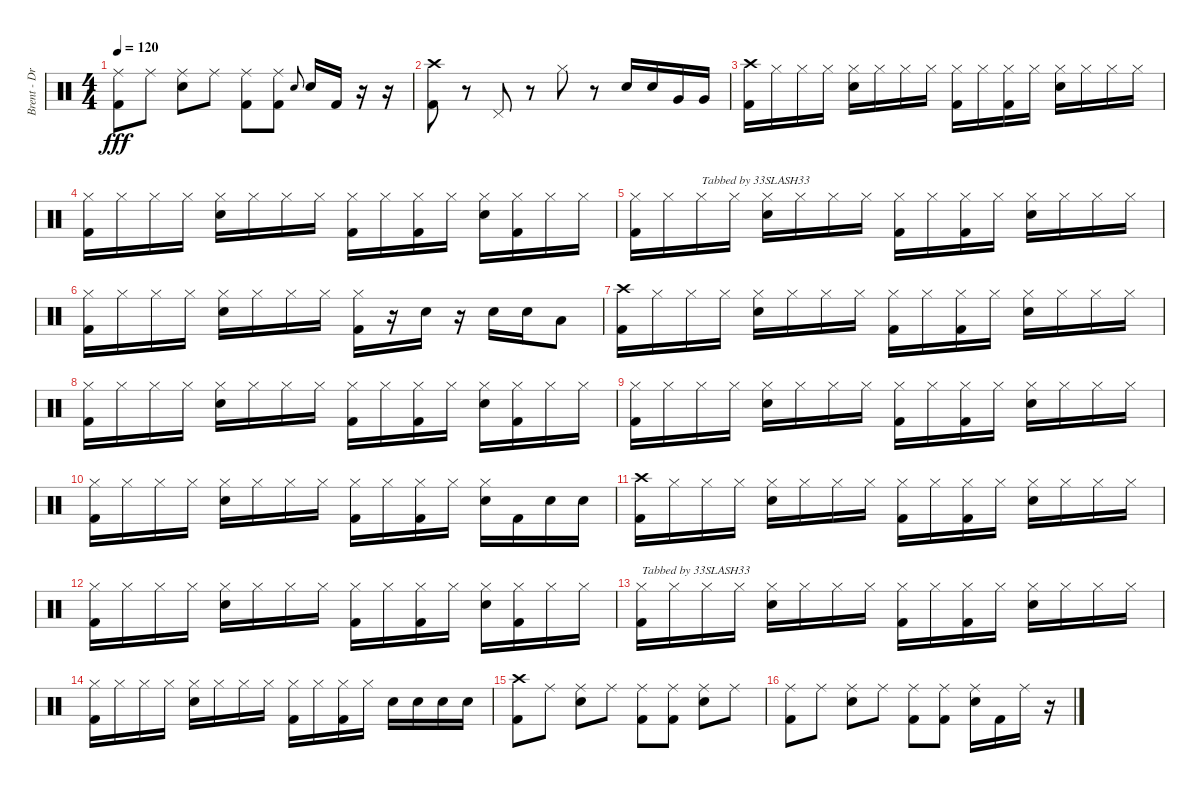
\track ("Brent - Drums" "Brent - Dr") {instrument percussion}
\staff {score}
\articulation defaults
\ts (4 4)
\tempo 120
\clef neutral
\ks c
("Ride (middle)" "Kick (hit) 2").8{dy fff} "Ride (middle)".8 ("Ride (middle)" "Snare (hit) 2").8 "Ride (middle)".8 ("Ride (middle)" "Kick (hit) 2").8 ("Ride (middle)" "Kick (hit) 2").8 "Snare (hit) 2".8{gr onbeat} "Snare (hit) 2".16 "Kick (hit) 2".16 r.16 r.16 |
("Crash high (hit)" "Kick (hit) 2").8 r.8 "Pedal Hi-Hat (hit)".8 r.8 "Hi-Hat (closed)".8 r.8 "Snare (hit) 2".16 "Snare (hit) 2".16 "Very Low Tom (hit)".16 "Very Low Tom (hit)".16 |
("Crash high (hit)" "Kick (hit) 2").16 "Hi-Hat (closed)".16 "Hi-Hat (closed)".16 "Hi-Hat (closed)".16 ("Hi-Hat (closed)" "Snare (hit) 2").16 "Hi-Hat (closed)".16 "Hi-Hat (closed)".16 "Hi-Hat (closed)".16 ("Hi-Hat (closed)" "Kick (hit) 2").16 "Hi-Hat (closed)".16 ("Hi-Hat (closed)" "Kick (hit) 2").16 "Hi-Hat (closed)".16 ("Hi-Hat (closed)" "Snare (hit) 2").16 "Hi-Hat (closed)".16 "Hi-Hat (closed)".16 "Hi-Hat (closed)".16 |
("Hi-Hat (closed)" "Kick (hit) 2").16 "Hi-Hat (closed)".16 "Hi-Hat (closed)".16 "Hi-Hat (closed)".16 ("Hi-Hat (closed)" "Snare (hit) 2").16 "Hi-Hat (closed)".16 "Hi-Hat (closed)".16 "Hi-Hat (closed)".16 ("Hi-Hat (closed)" "Kick (hit) 2").16 "Hi-Hat (closed)".16 ("Hi-Hat (closed)" "Kick (hit) 2").16 "Hi-Hat (closed)".16 ("Hi-Hat (closed)" "Snare (hit) 2").16 ("Hi-Hat (closed)" "Kick (hit) 2").16 "Hi-Hat (closed)".16 "Hi-Hat (closed)".16 |
("Hi-Hat (closed)" "Kick (hit) 2").16 "Hi-Hat (closed)".16 "Hi-Hat (closed)".16{txt "Tabbed by 33SLASH33"} "Hi-Hat (closed)".16 ("Hi-Hat (closed)" "Snare (hit) 2").16 "Hi-Hat (closed)".16 "Hi-Hat (closed)".16 "Hi-Hat (closed)".16 ("Hi-Hat (closed)" "Kick (hit) 2").16 "Hi-Hat (closed)".16 ("Hi-Hat (closed)" "Kick (hit) 2").16 "Hi-Hat (closed)".16 ("Hi-Hat (closed)" "Snare (hit) 2").16 "Hi-Hat (closed)".16 "Hi-Hat (closed)".16 "Hi-Hat (closed)".16 |
("Hi-Hat (closed)" "Kick (hit) 2").16 "Hi-Hat (closed)".16 "Hi-Hat (closed)".16 "Hi-Hat (closed)".16 ("Hi-Hat (closed)" "Snare (hit) 2").16 "Hi-Hat (closed)".16 "Hi-Hat (closed)".16 "Hi-Hat (closed)".16 ("Hi-Hat (closed)" "Kick (hit) 2").16 r.16 "Snare (hit) 2".16 r.16 "Snare (hit) 2".16 "Snare (hit) 2".16 "Low Tom (hit)".8 |
("Crash high (hit)" "Kick (hit) 2").16 "Hi-Hat (closed)".16 "Hi-Hat (closed)".16 "Hi-Hat (closed)".16 ("Hi-Hat (closed)" "Snare (hit) 2").16 "Hi-Hat (closed)".16 "Hi-Hat (closed)".16 "Hi-Hat (closed)".16 ("Hi-Hat (closed)" "Kick (hit) 2").16 "Hi-Hat (closed)".16 ("Hi-Hat (closed)" "Kick (hit) 2").16 "Hi-Hat (closed)".16 ("Hi-Hat (closed)" "Snare (hit) 2").16 "Hi-Hat (closed)".16 "Hi-Hat (closed)".16 "Hi-Hat (closed)".16 |
("Hi-Hat (closed)" "Kick (hit) 2").16 "Hi-Hat (closed)".16 "Hi-Hat (closed)".16 "Hi-Hat (closed)".16 ("Hi-Hat (closed)" "Snare (hit) 2").16 "Hi-Hat (closed)".16 "Hi-Hat (closed)".16 "Hi-Hat (closed)".16 ("Hi-Hat (closed)" "Kick (hit) 2").16 "Hi-Hat (closed)".16 ("Hi-Hat (closed)" "Kick (hit) 2").16 "Hi-Hat (closed)".16 ("Hi-Hat (closed)" "Snare (hit) 2").16 ("Hi-Hat (closed)" "Kick (hit) 2").16 "Hi-Hat (closed)".16 "Hi-Hat (closed)".16 |
("Hi-Hat (closed)" "Kick (hit) 2").16 "Hi-Hat (closed)".16 "Hi-Hat (closed)".16 "Hi-Hat (closed)".16 ("Hi-Hat (closed)" "Snare (hit) 2").16 "Hi-Hat (closed)".16 "Hi-Hat (closed)".16 "Hi-Hat (closed)".16 ("Hi-Hat (closed)" "Kick (hit) 2").16 "Hi-Hat (closed)".16 ("Hi-Hat (closed)" "Kick (hit) 2").16 "Hi-Hat (closed)".16 ("Hi-Hat (closed)" "Snare (hit) 2").16 "Hi-Hat (closed)".16 "Hi-Hat (closed)".16 "Hi-Hat (closed)".16 |
("Hi-Hat (closed)" "Kick (hit) 2").16 "Hi-Hat (closed)".16 "Hi-Hat (closed)".16 "Hi-Hat (closed)".16 ("Hi-Hat (closed)" "Snare (hit) 2").16 "Hi-Hat (closed)".16 "Hi-Hat (closed)".16 "Hi-Hat (closed)".16 ("Hi-Hat (closed)" "Kick (hit) 2").16 "Hi-Hat (closed)".16 ("Hi-Hat (closed)" "Kick (hit) 2").16 "Hi-Hat (closed)".16 ("Hi-Hat (closed)" "Snare (hit) 2").16 "Kick (hit) 2".16 "Snare (hit) 2".16 "Snare (hit) 2".16 |
("Crash high (hit)" "Kick (hit) 2").16 "Hi-Hat (closed)".16 "Hi-Hat (closed)".16 "Hi-Hat (closed)".16 ("Hi-Hat (closed)" "Snare (hit) 2").16 "Hi-Hat (closed)".16 "Hi-Hat (closed)".16 "Hi-Hat (closed)".16 ("Hi-Hat (closed)" "Kick (hit) 2").16 "Hi-Hat (closed)".16 ("Hi-Hat (closed)" "Kick (hit) 2").16 "Hi-Hat (closed)".16 ("Hi-Hat (closed)" "Snare (hit) 2").16 "Hi-Hat (closed)".16 "Hi-Hat (closed)".16 "Hi-Hat (closed)".16 |
("Hi-Hat (closed)" "Kick (hit) 2").16 "Hi-Hat (closed)".16 "Hi-Hat (closed)".16 "Hi-Hat (closed)".16 ("Hi-Hat (closed)" "Snare (hit) 2").16 "Hi-Hat (closed)".16 "Hi-Hat (closed)".16 "Hi-Hat (closed)".16 ("Hi-Hat (closed)" "Kick (hit) 2").16 "Hi-Hat (closed)".16 ("Hi-Hat (closed)" "Kick (hit) 2").16 "Hi-Hat (closed)".16 ("Hi-Hat (closed)" "Snare (hit) 2").16 ("Hi-Hat (closed)" "Kick (hit) 2").16 "Hi-Hat (closed)".16 "Hi-Hat (closed)".16 |
("Hi-Hat (closed)" "Kick (hit) 2").16{txt "Tabbed by 33SLASH33"} "Hi-Hat (closed)".16 "Hi-Hat (closed)".16 "Hi-Hat (closed)".16 ("Hi-Hat (closed)" "Snare (hit) 2").16 "Hi-Hat (closed)".16 "Hi-Hat (closed)".16 "Hi-Hat (closed)".16 ("Hi-Hat (closed)" "Kick (hit) 2").16 "Hi-Hat (closed)".16 ("Hi-Hat (closed)" "Kick (hit) 2").16 "Hi-Hat (closed)".16 ("Hi-Hat (closed)" "Snare (hit) 2").16 "Hi-Hat (closed)".16 "Hi-Hat (closed)".16 "Hi-Hat (closed)".16 |
("Hi-Hat (closed)" "Kick (hit) 2").16 "Hi-Hat (closed)".16 "Hi-Hat (closed)".16 "Hi-Hat (closed)".16 ("Hi-Hat (closed)" "Snare (hit) 2").16 "Hi-Hat (closed)".16 "Hi-Hat (closed)".16 "Hi-Hat (closed)".16 ("Hi-Hat (closed)" "Kick (hit) 2").16 "Hi-Hat (closed)".16 ("Hi-Hat (closed)" "Kick (hit) 2").16 "Hi-Hat (closed)".16 "Snare (hit) 2".16 "Snare (hit) 2".16 "Snare (hit) 2".16 "Snare (hit) 2".16 |
("Crash high (hit)" "Kick (hit) 2").8 "Ride (middle)".8 ("Ride (middle)" "Snare (hit) 2").8 "Ride (middle)".8 ("Ride (middle)" "Kick (hit) 2").8 ("Ride (middle)" "Kick (hit) 2").8 ("Ride (middle)" "Snare (hit) 2").8 "Ride (middle)".8 |
("Ride (middle)" "Kick (hit) 2").8 "Ride (middle)".8 ("Ride (middle)" "Snare (hit) 2").8 "Ride (middle)".8 ("Ride (middle)" "Kick (hit) 2").8 ("Ride (middle)" "Kick (hit) 2").8 ("Ride (middle)" "Snare (hit) 2").16 "Kick (hit) 2".16 "Ride (middle)".16 r.16
